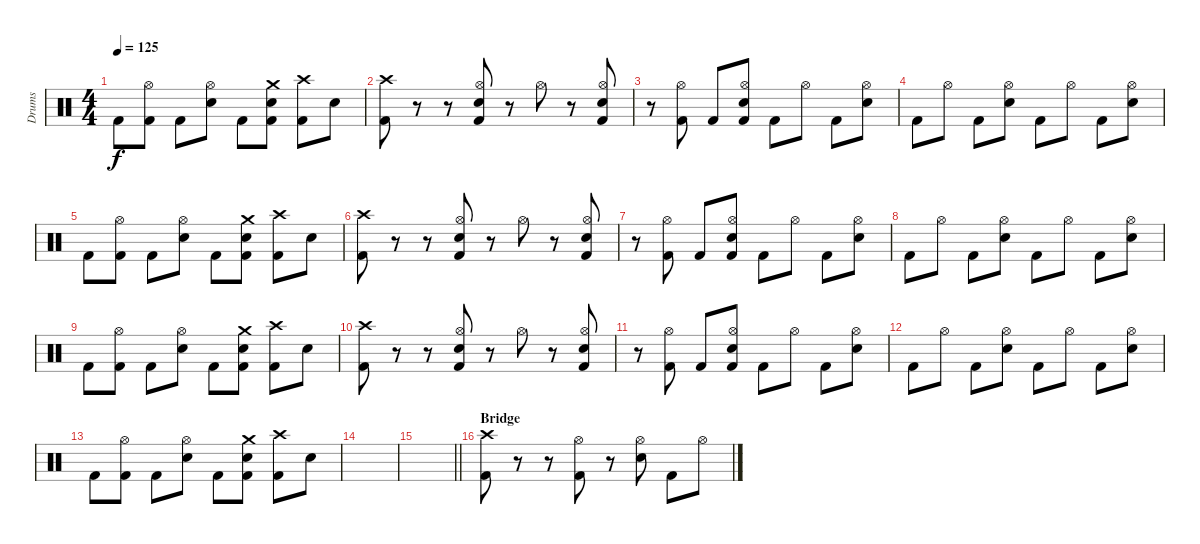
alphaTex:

\track ("Drums" "Drums") {instrument percussion}
\staff {score}
\articulation defaults
\ts (4 4)
\tempo 125
\clef neutral
\ks c "Kick (hit) 2".8{dy f}
("Hi-Hat (open)" "Kick (hit) 2").8 "Kick (hit) 2".8 ("Hi-Hat (open)" "Snare (hit) 2").8 "Kick (hit) 2".8 ("Crash medium (hit)" "Snare (hit) 2" "Kick (hit) 2").8 ("Crash high (hit)" "Kick (hit) 2").8 "Snare (hit) 2".8 |
("Crash high (hit)" "Kick (hit) 2").8 r.8 r.8 ("Hi-Hat (open)" "Snare (hit) 2" "Kick (hit) 2").8 r.8 "Hi-Hat (open)".8 r.8 ("Hi-Hat (open)" "Snare (hit) 2" "Kick (hit) 2").8 |
r.8 ("Hi-Hat (open)" "Kick (hit) 2").8 "Kick (hit) 2".8 ("Hi-Hat (open)" "Snare (hit) 2" "Kick (hit) 2").8 "Kick (hit) 2".8 "Hi-Hat (open)".8 "Kick (hit) 2".8 ("Hi-Hat (open)" "Snare (hit) 2").8 |
"Kick (hit) 2".8 "Hi-Hat (open)".8 "Kick (hit) 2".8 ("Hi-Hat (open)" "Snare (hit) 2").8 "Kick (hit) 2".8 "Hi-Hat (open)".8 "Kick (hit) 2".8 ("Hi-Hat (open)" "Snare (hit) 2").8 |
"Kick (hit) 2".8 ("Hi-Hat (open)" "Kick (hit) 2").8 "Kick (hit) 2".8 ("Hi-Hat (open)" "Snare (hit) 2").8 "Kick (hit) 2".8 ("Crash medium (hit)" "Snare (hit) 2" "Kick (hit) 2").8 ("Crash high (hit)" "Kick (hit) 2").8 "Snare (hit) 2".8 |
("Crash high (hit)" "Kick (hit) 2").8 r.8 r.8 ("Hi-Hat (open)" "Snare (hit) 2" "Kick (hit) 2").8 r.8 "Hi-Hat (open)".8 r.8 ("Hi-Hat (open)" "Snare (hit) 2" "Kick (hit) 2").8 |
r.8 ("Hi-Hat (open)" "Kick (hit) 2").8 "Kick (hit) 2".8 ("Hi-Hat (open)" "Snare (hit) 2" "Kick (hit) 2").8 "Kick (hit) 2".8 "Hi-Hat (open)".8 "Kick (hit) 2".8 ("Hi-Hat (open)" "Snare (hit) 2").8 |
"Kick (hit) 2".8 "Hi-Hat (open)".8 "Kick (hit) 2".8 ("Hi-Hat (open)" "Snare (hit) 2").8 "Kick (hit) 2".8 "Hi-Hat (open)".8 "Kick (hit) 2".8 ("Hi-Hat (open)" "Snare (hit) 2").8 |
"Kick (hit) 2".8 ("Hi-Hat (open)" "Kick (hit) 2").8 "Kick (hit) 2".8 ("Hi-Hat (open)" "Snare (hit) 2").8 "Kick (hit) 2".8 ("Crash medium (hit)" "Snare (hit) 2" "Kick (hit) 2").8 ("Crash high (hit)" "Kick (hit) 2").8 "Snare (hit) 2".8 |
("Crash high (hit)" "Kick (hit) 2").8 r.8 r.8 ("Hi-Hat (open)" "Snare (hit) 2" "Kick (hit) 2").8 r.8 "Hi-Hat (open)".8 r.8 ("Hi-Hat (open)" "Snare (hit) 2" "Kick (hit) 2").8 |
r.8 ("Hi-Hat (open)" "Kick (hit) 2").8 "Kick (hit) 2".8 ("Hi-Hat (open)" "Snare (hit) 2" "Kick (hit) 2").8 "Kick (hit) 2".8 "Hi-Hat (open)".8 "Kick (hit) 2".8 ("Hi-Hat (open)" "Snare (hit) 2").8 |
"Kick (hit) 2".8 "Hi-Hat (open)".8 "Kick (hit) 2".8 ("Hi-Hat (open)" "Snare (hit) 2").8 "Kick (hit) 2".8 "Hi-Hat (open)".8 "Kick (hit) 2".8 ("Hi-Hat (open)" "Snare (hit) 2").8 |
"Kick (hit) 2".8 ("Hi-Hat (open)" "Kick (hit) 2").8 "Kick (hit) 2".8 ("Hi-Hat (open)" "Snare (hit) 2").8 "Kick (hit) 2".8 ("Crash medium (hit)" "Snare (hit) 2" "Kick (hit) 2").8 ("Crash high (hit)" "Kick (hit) 2").8 "Snare (hit) 2".8 |
|
\barLineRight lightlight
|
\section ("" "Bridge")
("Crash high (hit)" "Kick (hit) 2").8 r.8 r.8 ("Hi-Hat (open)" "Kick (hit) 2").8 r.8 ("Hi-Hat (open)" "Snare (hit) 2").8 "Kick (hit) 2".8 "Hi-Hat (open)".8
